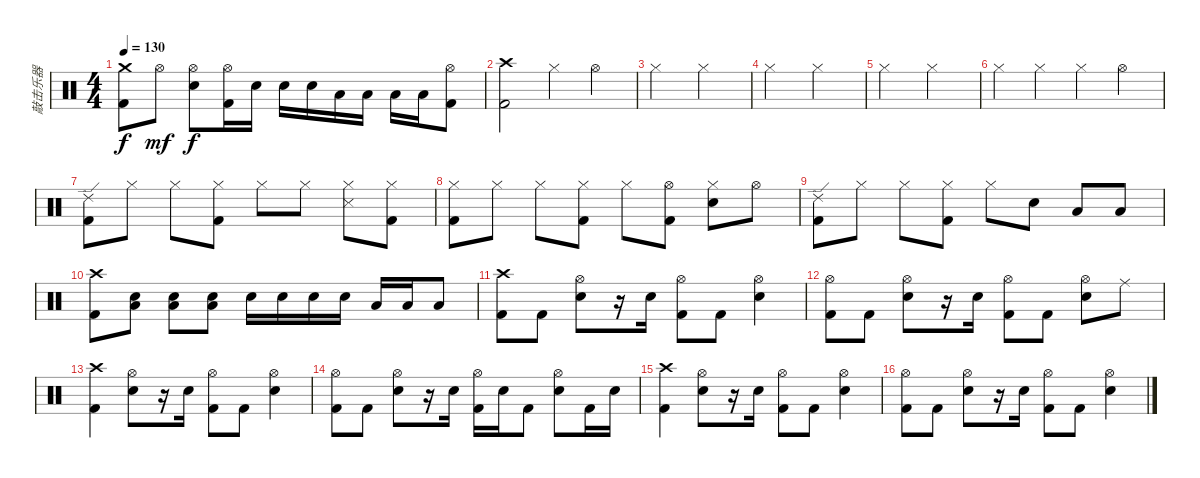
\track ("敲击乐器" "敲击乐器") {instrument percussion}
\staff {score}
\articulation defaults
\ts (4 4)
\tempo 130
\clef neutral
\ks c
("Crash medium (hit)" "Kick (hit) 2").8{dy f} "Hi-Hat (open)".8{dy mf} ("Hi-Hat (open)" "Snare (hit) 2").8{dy f} ("Hi-Hat (open)" "Kick (hit) 2").16 "Snare (hit) 2".16 "Snare (hit) 2".16 "Snare (hit) 2".16 "Low Tom (hit)".16 "Low Tom (hit)".16 "Low Floor Tom (hit)".16 "Low Floor Tom (hit)".16 ("Hi-Hat (open)" "Kick (hit) 2").8 |
("Crash high (hit)" "Kick (hit) 2").2 "Hi-Hat (closed)".4 "Hi-Hat (open)".4 |
"Hi-Hat (closed)".2 "Hi-Hat (closed)".2 |
"Hi-Hat (closed)".2 "Hi-Hat (closed)".2 |
"Hi-Hat (closed)".2 "Hi-Hat (closed)".2 |
"Hi-Hat (closed)".4 "Hi-Hat (closed)".4 "Hi-Hat (closed)".4 "Hi-Hat (open)".4 |
("Ride (edge) 2" "Kick (hit) 2").8 "Hi-Hat (closed)".8 "Hi-Hat (closed)".8 ("Hi-Hat (closed)" "Kick (hit) 2").8 "Hi-Hat (closed)".8 "Hi-Hat (closed)".8 ("Hi-Hat (closed)" "Snare (side stick) 3").8 ("Hi-Hat (closed)" "Kick (hit) 2").8 |
("Hi-Hat (closed)" "Kick (hit) 2").8 "Hi-Hat (closed)".8 "Hi-Hat (closed)".8 ("Hi-Hat (closed)" "Kick (hit) 2").8 "Hi-Hat (closed)".8 ("Hi-Hat (open)" "Kick (hit) 2").8 ("Hi-Hat (closed)" "Snare (hit) 2").8 "Hi-Hat (open)".8 |
("Ride (edge) 2" "Kick (hit) 2").8 "Hi-Hat (closed)".8 "Hi-Hat (closed)".8 ("Hi-Hat (closed)" "Kick (hit) 2").8 "Hi-Hat (closed)".8 "Snare (hit) 2".8 "Low Tom (hit)".8 "Low Floor Tom (hit)".8 |
("Crash high (hit)" "Kick (hit) 2").8 ("Low Floor Tom (hit)" "Snare (hit) 2").8 ("Low Floor Tom (hit)" "Snare (hit) 2").8 ("Low Floor Tom (hit)" "Snare (hit) 2").8 "Snare (hit) 2".16 "Snare (hit) 2".16 "Snare (hit) 2".16 "Snare (hit) 2".16 "Low Tom (hit)".16 "Low Floor Tom (hit)".16 "Low Floor Tom (hit)".8 |
("Crash high (hit)" "Kick (hit) 2").8 "Kick (hit) 2".8 ("Hi-Hat (open)" "Snare (hit) 2").8 r.16 "Snare (hit) 2".16 ("Hi-Hat (open)" "Kick (hit) 2").8 "Kick (hit) 2".8 ("Hi-Hat (open)" "Snare (hit) 2").4 |
("Hi-Hat (open)" "Kick (hit) 2").8 "Kick (hit) 2".8 ("Hi-Hat (open)" "Snare (hit) 2").8 r.16 "Snare (hit) 2".16 ("Hi-Hat (open)" "Kick (hit) 2").8 "Kick (hit) 2".8 ("Hi-Hat (open)" "Snare (hit) 2").8 "Ride (middle)".8 |
("Crash high (hit)" "Kick (hit) 2").4 ("Hi-Hat (open)" "Snare (hit) 2").8 r.16 "Snare (hit) 2".16 ("Hi-Hat (open)" "Kick (hit) 2").8 "Kick (hit) 2".8 ("Hi-Hat (open)" "Snare (hit) 2").4 |
("Hi-Hat (open)" "Kick (hit) 2").8 "Kick (hit) 2".8 ("Hi-Hat (open)" "Snare (hit) 2").8 r.16 "Snare (hit) 2".16 ("Hi-Hat (open)" "Kick (hit) 2").16 "Snare (hit) 2".16 "Kick (hit) 2".8 ("Hi-Hat (open)" "Snare (hit) 2").8 "Kick (hit) 2".16 "Snare (hit) 2".16 |
("Crash high (hit)" "Kick (hit) 2").4 ("Hi-Hat (open)" "Snare (hit) 2").8 r.16 "Snare (hit) 2".16 ("Hi-Hat (open)" "Kick (hit) 2").8 "Kick (hit) 2".8 ("Hi-Hat (open)" "Snare (hit) 2").4 |
("Hi-Hat (open)" "Kick (hit) 2").8 "Kick (hit) 2".8 ("Hi-Hat (open)" "Snare (hit) 2").8 r.16 "Snare (hit) 2".16 ("Hi-Hat (open)" "Kick (hit) 2").8 "Kick (hit) 2".8 ("Hi-Hat (open)" "Snare (hit) 2").4
